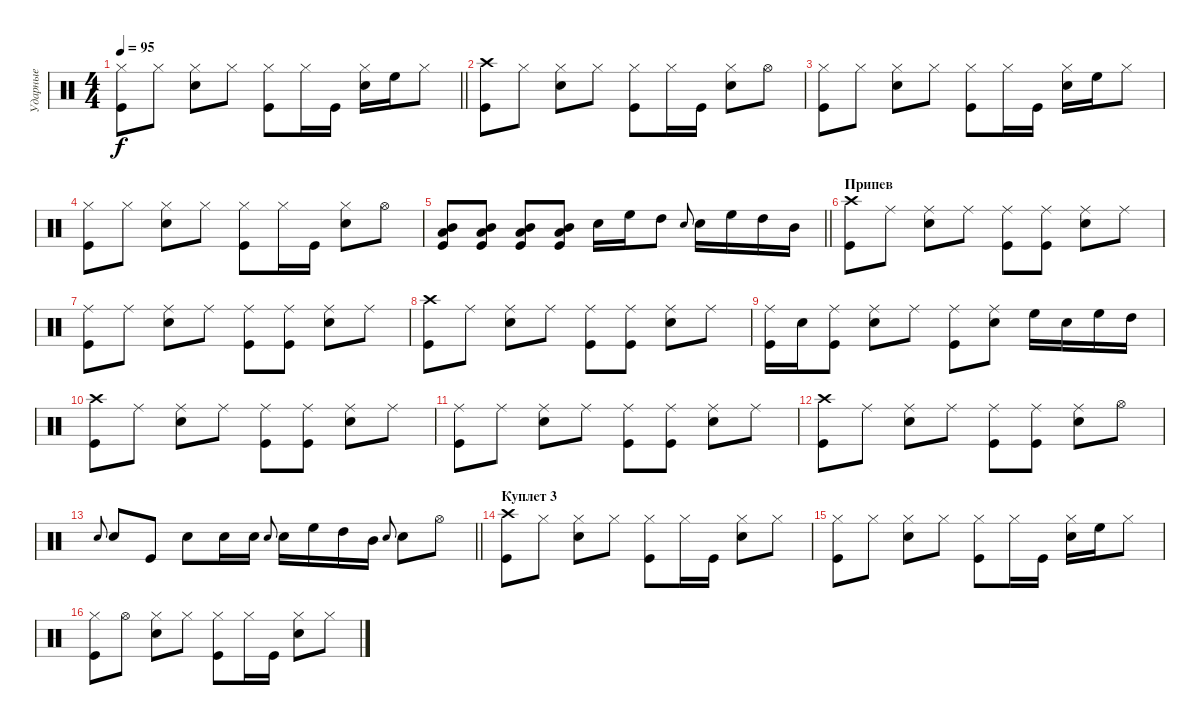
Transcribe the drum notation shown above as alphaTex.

\track ("Ударные" "Ударные") {instrument percussion}
\staff {score}
\articulation defaults
\ts (4 4)
\tempo 95
\clef neutral
\barLineRight lightlight
\ks c
("Hi-Hat (closed)" "Kick (hit)").8{dy f} "Hi-Hat (closed)".8 ("Hi-Hat (closed)" "Snare (hit) 2").8 "Hi-Hat (closed)".8 ("Hi-Hat (closed)" "Kick (hit)").8 "Hi-Hat (closed)".16 "Kick (hit)".16 ("Hi-Hat (closed)" "Snare (hit) 2").16 "High Floor Tom (hit)".16 "Hi-Hat (closed)".8 |
("Crash high (hit)" "Kick (hit)").8 "Hi-Hat (closed)".8 ("Hi-Hat (closed)" "Snare (hit) 2").8 "Hi-Hat (closed)".8 ("Hi-Hat (closed)" "Kick (hit)").8 "Hi-Hat (closed)".16 "Kick (hit)".16 ("Hi-Hat (closed)" "Snare (hit) 2").8 "Hi-Hat (open)".8 |
("Hi-Hat (closed)" "Kick (hit)").8 "Hi-Hat (closed)".8 ("Hi-Hat (closed)" "Snare (hit) 2").8 "Hi-Hat (closed)".8 ("Hi-Hat (closed)" "Kick (hit)").8 "Hi-Hat (closed)".16 "Kick (hit)".16 ("Hi-Hat (closed)" "Snare (hit) 2").16 "High Floor Tom (hit)".16 "Hi-Hat (closed)".8 |
("Hi-Hat (closed)" "Kick (hit)").8 "Hi-Hat (closed)".8 ("Hi-Hat (closed)" "Snare (hit) 2").8 "Hi-Hat (closed)".8 ("Hi-Hat (closed)" "Kick (hit)").8 "Hi-Hat (closed)".16 "Kick (hit)".16 ("Hi-Hat (closed)" "Snare (hit) 2").8 "Hi-Hat (open)".8 |
\barLineRight lightlight
("Mid Tom (hit)" "Low Tom (hit)" "Kick (hit)").8 ("Mid Tom (hit)" "Low Tom (hit)" "Kick (hit)").8 ("Mid Tom (hit)" "Low Tom (hit)" "Kick (hit)").8 ("Mid Tom (hit)" "Low Tom (hit)" "Kick (hit)").8 "Snare (hit) 2".16 "High Floor Tom (hit)".16 "High Tom (hit)".8 "Snare (hit) 2".8{gr onbeat} "Snare (hit) 2".16 "High Floor Tom (hit)".16 "High Tom (hit)".16 "Mid Tom (hit)".16 |
\section ("" "Припев")
("Crash high (hit)" "Kick (hit)").8{volume 16} "Ride (middle)".8 ("Ride (middle)" "Snare (hit) 2").8 "Ride (middle)".8 ("Ride (middle)" "Kick (hit)").8 ("Ride (middle)" "Kick (hit)").8 ("Ride (middle)" "Snare (hit) 2").8 "Ride (middle)".8 |
("Ride (middle)" "Kick (hit)").8 "Ride (middle)".8 ("Ride (middle)" "Snare (hit) 2").8 "Ride (middle)".8 ("Ride (middle)" "Kick (hit)").8 ("Ride (middle)" "Kick (hit)").8 ("Ride (middle)" "Snare (hit) 2").8 "Ride (middle)".8 |
("Crash high (hit)" "Kick (hit)").8 "Ride (middle)".8 ("Ride (middle)" "Snare (hit) 2").8 "Ride (middle)".8 ("Ride (middle)" "Kick (hit)").8 ("Ride (middle)" "Kick (hit)").8 ("Ride (middle)" "Snare (hit) 2").8 "Ride (middle)".8 |
("Ride (middle)" "Kick (hit)").16 "Snare (hit) 2".16 ("Ride (middle)" "Kick (hit)").8 ("Ride (middle)" "Snare (hit) 2").8 "Ride (middle)".8 ("Ride (middle)" "Kick (hit)").8 ("Ride (middle)" "Snare (hit) 2").8 "High Floor Tom (hit)".16 "Snare (hit) 2".16 "High Floor Tom (hit)".16 "High Tom (hit)".16 |
("Crash high (hit)" "Kick (hit)").8 "Ride (middle)".8 ("Ride (middle)" "Snare (hit) 2").8 "Ride (middle)".8 ("Ride (middle)" "Kick (hit)").8 ("Ride (middle)" "Kick (hit)").8 ("Ride (middle)" "Snare (hit) 2").8 "Ride (middle)".8 |
("Ride (middle)" "Kick (hit)").8 "Ride (middle)".8 ("Ride (middle)" "Snare (hit) 2").8 "Ride (middle)".8 ("Ride (middle)" "Kick (hit)").8 ("Ride (middle)" "Kick (hit)").8 ("Ride (middle)" "Snare (hit) 2").8 "Ride (middle)".8 |
("Crash high (hit)" "Kick (hit)").8 "Ride (middle)".8 ("Ride (middle)" "Snare (hit) 2").8 "Ride (middle)".8 ("Ride (middle)" "Kick (hit)").8 ("Ride (middle)" "Kick (hit)").8 ("Ride (middle)" "Snare (hit) 2").8 "Hi-Hat (open)".8 |
\barLineRight lightlight "Snare (hit) 2".8{gr onbeat} "Snare (hit) 2".8 "Kick (hit)".8 "Snare (hit) 2".8 "Snare (hit) 2".16 "Snare (hit) 2".16 "Snare (hit) 2".8{gr onbeat} "Snare (hit) 2".16 "High Floor Tom (hit)".16 "High Tom (hit)".16 "Mid Tom (hit)".16 "Snare (hit) 2".8{gr onbeat} "Snare (hit) 2".8 "Hi-Hat (open)".8
|
\section ("" "Куплет 3")
("Crash high (hit)" "Kick (hit)").8{volume 12} "Hi-Hat (closed)".8 ("Hi-Hat (closed)" "Snare (hit) 2").8 "Hi-Hat (closed)".8 ("Hi-Hat (closed)" "Kick (hit)").8 "Hi-Hat (closed)".16 "Kick (hit)".16 ("Hi-Hat (closed)" "Snare (hit) 2").8 "Hi-Hat (closed)".8 |
("Hi-Hat (closed)" "Kick (hit)").8 "Hi-Hat (closed)".8 ("Hi-Hat (closed)" "Snare (hit) 2").8 "Hi-Hat (closed)".8 ("Hi-Hat (closed)" "Kick (hit)").8 "Hi-Hat (closed)".16 "Kick (hit)".16 ("Hi-Hat (closed)" "Snare (hit) 2").16 "High Floor Tom (hit)".16 "Hi-Hat (closed)".8 |
("Hi-Hat (closed)" "Kick (hit)").8 "Hi-Hat (open)".8 ("Hi-Hat (closed)" "Snare (hit) 2").8 "Hi-Hat (closed)".8 ("Hi-Hat (closed)" "Kick (hit)").8 "Hi-Hat (closed)".16 "Kick (hit)".16 ("Hi-Hat (closed)" "Snare (hit) 2").8 "Hi-Hat (closed)".8
